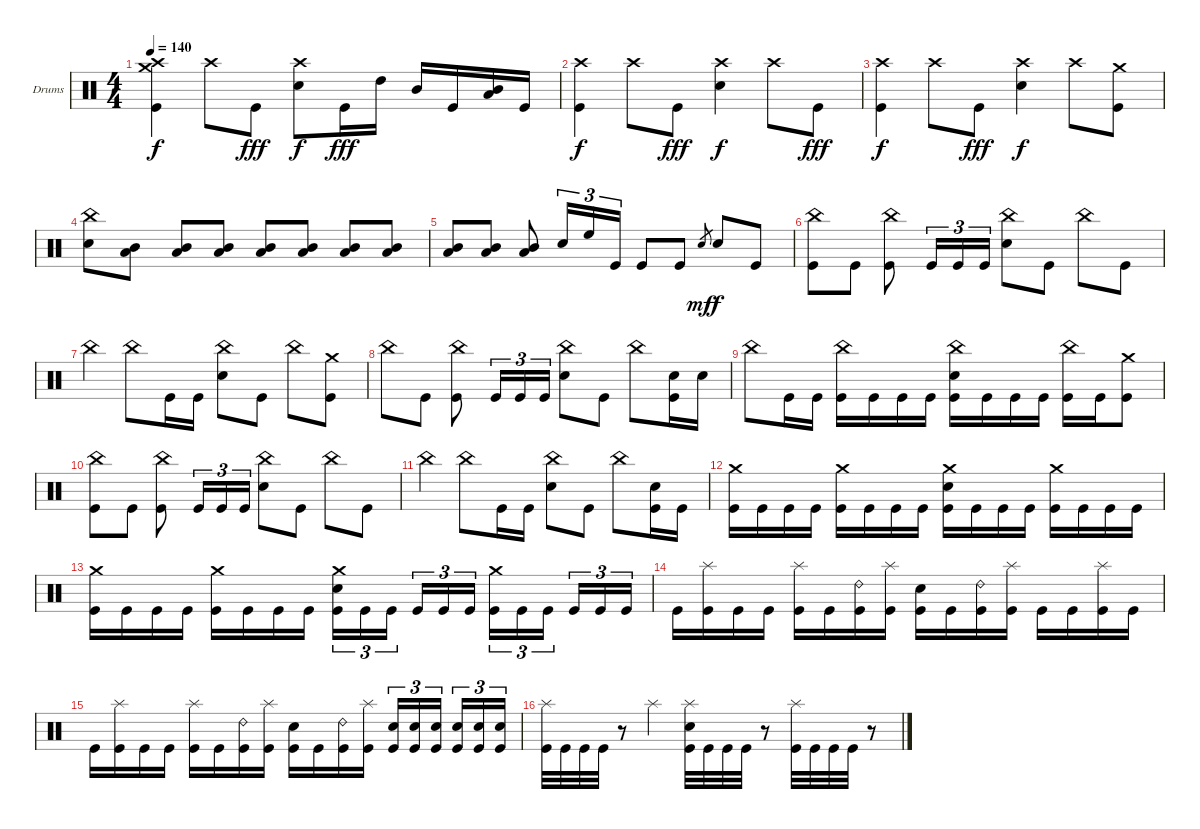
\defaultSystemsLayout 4
\bracketExtendMode groupsimilarinstruments
\firstSystemTrackNameOrientation horizontal
\otherSystemsTrackNameOrientation horizontal
\track ("Drumkit" "Drums") {instrument percussion}
\staff {score}
\articulation defaults
\ts (4 4)
\tempo 140
\clef neutral
\scale
0.333333
\ks c
("Crash high (hit)" "Crash medium (hit)" "Kick (hit)").4{dy f} "Crash high (hit)".8 "Kick (hit)".8{dy fff} ("Crash high (hit)" "Snare (hit) 2").8{dy f} "Kick (hit)".16{dy fff} "High Tom (hit)".16 "Mid Tom (hit)".16 "Kick (hit)".16 ("Mid Tom (hit)" "Low Tom (hit)").16 "Kick (hit)".16 |
\scale
0.333333 ("Crash high (hit)" "Kick (hit)").4{dy f} "Crash high (hit)".8 "Kick (hit)".8{dy fff} ("Crash high (hit)" "Snare (hit) 2").4{dy f} "Crash high (hit)".8 "Kick (hit)".8{dy fff} |
\scale
0.333333 ("Crash high (hit)" "Kick (hit)").4{dy f} "Crash high (hit)".8 "Kick (hit)".8{dy fff} ("Crash high (hit)" "Snare (hit) 2").4{dy f} "Crash high (hit)".8 ("Crash medium (hit)" "Kick (hit)").8 |
\scale
0.333333 ("China (hit)" "Snare (hit) 2").8 ("Mid Tom (hit)" "Low Tom (hit)").8 ("Mid Tom (hit)" "Low Tom (hit)").8 ("Mid Tom (hit)" "Low Tom (hit)").8 ("Mid Tom (hit)" "Low Tom (hit)").8 ("Mid Tom (hit)" "Low Tom (hit)").8 ("Mid Tom (hit)" "Low Tom (hit)").8 ("Mid Tom (hit)" "Low Tom (hit)").8 |
\scale
0.333333 ("Mid Tom (hit)" "Low Tom (hit)").8 ("Mid Tom (hit)" "Low Tom (hit)").8 ("Mid Tom (hit)" "Low Tom (hit)").8 "Snare (hit) 2".16{tu (3 2)} "High Floor Tom (hit)".16{tu (3 2)} "Kick (hit)".16{tu (3 2)} "Kick (hit)".8 "Kick (hit)".8 "Snare (hit) 2".8{gr dy mf} "Snare (hit) 2".8{dy f} "Kick (hit)".8 |
\scale
0.333333 ("China (hit)" "Kick (hit)").8 "Kick (hit)".8 ("China (hit)" "Kick (hit)").8 "Kick (hit)".16{tu (3 2)} "Kick (hit)".16{tu (3 2)} "Kick (hit)".16{tu (3 2)} ("China (hit)" "Snare (hit) 2").8 "Kick (hit)".8 "China (hit)".8 "Kick (hit)".8 |
\scale
0.333333 "China (hit)".4 "China (hit)".8 "Kick (hit)".16 "Kick (hit)".16 ("China (hit)" "Snare (hit) 2").8 "Kick (hit)".8 "China (hit)".8 ("Crash medium (hit)" "Kick (hit)").8 |
\scale
0.333333 "China (hit)".8 "Kick (hit)".8 ("China (hit)" "Kick (hit)").8 "Kick (hit)".16{tu (3 2)} "Kick (hit)".16{tu (3 2)} "Kick (hit)".16{tu (3 2)} ("China (hit)" "Snare (hit) 2").8 "Kick (hit)".8 "China (hit)".8 ("Kick (hit)" "Snare (hit) 2").16 "Snare (hit) 2".16 |
\scale
0.333333 "China (hit)".8 "Kick (hit)".16 "Kick (hit)".16 ("China (hit)" "Kick (hit)").16 "Kick (hit)".16 "Kick (hit)".16 "Kick (hit)".16 ("China (hit)" "Snare (hit) 2" "Kick (hit)").16 "Kick (hit)".16 "Kick (hit)".16 "Kick (hit)".16 ("China (hit)" "Kick (hit)").16 "Kick (hit)".16 ("Crash medium (hit)" "Kick (hit)").8 |
\scale
0.333333 ("China (hit)" "Kick (hit)").8 "Kick (hit)".8 ("China (hit)" "Kick (hit)").8 "Kick (hit)".16{tu (3 2)} "Kick (hit)".16{tu (3 2)} "Kick (hit)".16{tu (3 2)} ("China (hit)" "Snare (hit) 2").8 "Kick (hit)".8 "China (hit)".8 "Kick (hit)".8 |
\scale
0.333333 "China (hit)".4 "China (hit)".8 "Kick (hit)".16 "Kick (hit)".16 ("China (hit)" "Snare (hit) 2").8 "Kick (hit)".8 "China (hit)".8 ("Kick (hit)" "Snare (hit) 2").16 "Kick (hit)".16 |
\scale
0.333333 ("Crash medium (hit)" "Kick (hit)").16 "Kick (hit)".16 "Kick (hit)".16 "Kick (hit)".16 ("Crash medium (hit)" "Kick (hit)").16 "Kick (hit)".16 "Kick (hit)".16 "Kick (hit)".16 ("Crash medium (hit)" "Snare (hit) 2" "Kick (hit)").16 "Kick (hit)".16 "Kick (hit)".16 "Kick (hit)".16 ("Crash medium (hit)" "Kick (hit)").16 "Kick (hit)".16 "Kick (hit)".16 "Kick (hit)".16 |
\scale
0.333333 ("Crash medium (hit)" "Kick (hit)").16 "Kick (hit)".16 "Kick (hit)".16 "Kick (hit)".16 ("Crash medium (hit)" "Kick (hit)").16 "Kick (hit)".16 "Kick (hit)".16 "Kick (hit)".16 ("Crash medium (hit)" "Snare (hit) 2" "Kick (hit)").16{tu (3 2)} "Kick (hit)".16{tu (3 2)} "Kick (hit)".16{tu (3 2)} "Kick (hit)".16{tu (3 2)} "Kick (hit)".16{tu (3 2)} "Kick (hit)".16{tu (3 2)} ("Crash medium (hit)" "Kick (hit)").16{tu (3 2)} "Kick (hit)".16{tu (3 2)} "Kick (hit)".16{tu (3 2)} "Kick (hit)".16{tu (3 2)} "Kick (hit)".16{tu (3 2)} "Kick (hit)".16{tu (3 2)} |
\scale
0.333333 "Kick (hit)".16 ("Splash (hit)" "Kick (hit)").16 "Kick (hit)".16 "Kick (hit)".16 ("Splash (hit)" "Kick (hit)").16 "Kick (hit)".16 ("Ride (bell) 2" "Kick (hit)").16 ("Splash (hit)" "Kick (hit)").16 ("Snare (hit) 2" "Kick (hit)").16 "Kick (hit)".16 ("Ride (bell) 2" "Kick (hit)").16 ("Splash (hit)" "Kick (hit)").16 "Kick (hit)".16 "Kick (hit)".16 ("Splash (hit)" "Kick (hit)").16 "Kick (hit)".16 |
\scale
0.333333 "Kick (hit)".16 ("Splash (hit)" "Kick (hit)").16 "Kick (hit)".16 "Kick (hit)".16 ("Splash (hit)" "Kick (hit)").16 "Kick (hit)".16 ("Ride (bell) 2" "Kick (hit)").16 ("Splash (hit)" "Kick (hit)").16 ("Snare (hit) 2" "Kick (hit)").16 "Kick (hit)".16 ("Ride (bell) 2" "Kick (hit)").16 ("Splash (hit)" "Kick (hit)").16 ("Snare (hit) 2" "Kick (hit)").16{tu (3 2)} ("Snare (hit) 2" "Kick (hit)").16{tu (3 2)} ("Snare (hit) 2" "Kick (hit)").16{tu (3 2)} ("Snare (hit) 2" "Kick (hit)").16{tu (3 2)} ("Snare (hit) 2" "Kick (hit)").16{tu (3 2)} ("Snare (hit) 2" "Kick (hit)").16{tu (3 2)} |
\scale
0.333333 ("Splash (hit)" "Kick (hit)").32 "Kick (hit)".32 "Kick (hit)".32 "Kick (hit)".32 r.8 "Splash (hit)".4 ("Splash (hit)" "Snare (hit) 2" "Kick (hit)").32 "Kick (hit)".32 "Kick (hit)".32 "Kick (hit)".32 r.8 ("Splash (hit)" "Kick (hit)").32 "Kick (hit)".32 "Kick (hit)".32 "Kick (hit)".32 r.8
